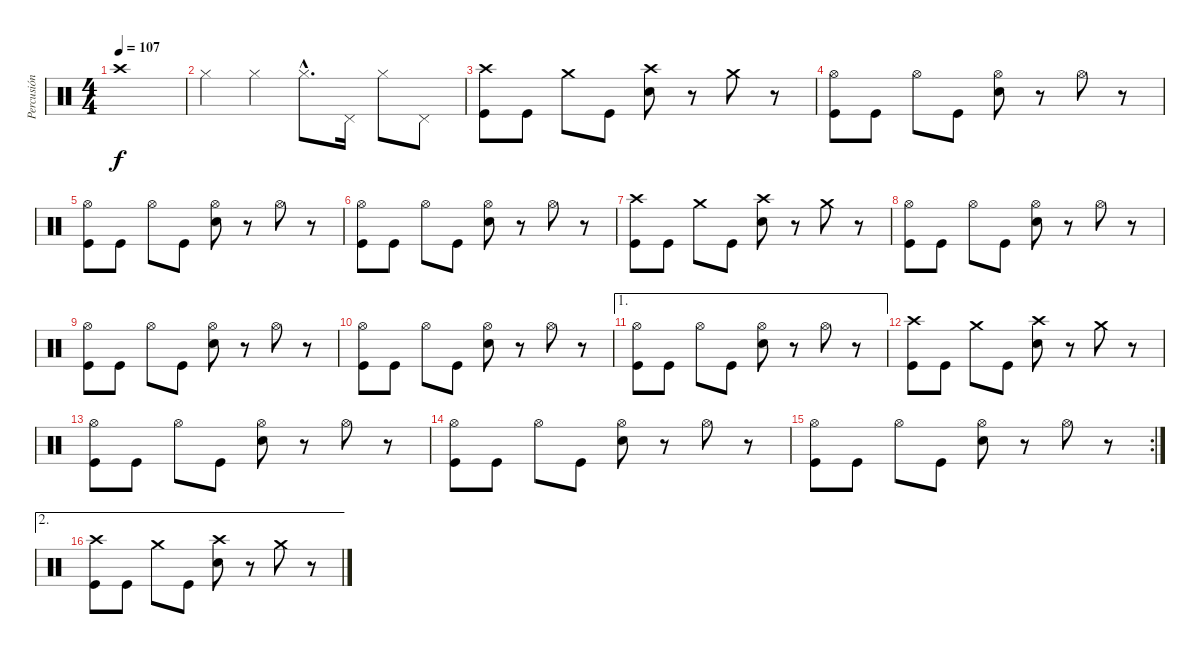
\track ("Percusión" "Percusión") {instrument percussion}
\staff {score}
\articulation defaults
\ts (4 4)
\tempo 107
\clef neutral
\ks c "Crash high (hit)".1{dy f}
|
"Hi-Hat (closed)".4 "Hi-Hat (closed)".4 "Hi-Hat (closed)"{hac}.8{d} "Pedal Hi-Hat (hit)".16 "Hi-Hat (closed)".8 "Pedal Hi-Hat (hit)".8 |
("Crash high (hit)" "Kick (hit)").8 "Kick (hit)".8 "Crash medium (hit)".8 "Kick (hit)".8 ("Crash high (hit)" "Snare (hit) 2").8 r.8 "Crash medium (hit)".8 r.8 |
("Hi-Hat (open)" "Kick (hit)").8 "Kick (hit)".8 "Hi-Hat (open)".8 "Kick (hit)".8 ("Hi-Hat (open)" "Snare (hit) 2").8 r.8 "Hi-Hat (open)".8 r.8 |
("Hi-Hat (open)" "Kick (hit)").8 "Kick (hit)".8 "Hi-Hat (open)".8 "Kick (hit)".8 ("Hi-Hat (open)" "Snare (hit) 2").8 r.8 "Hi-Hat (open)".8 r.8 |
("Hi-Hat (open)" "Kick (hit)").8 "Kick (hit)".8 "Hi-Hat (open)".8 "Kick (hit)".8 ("Hi-Hat (open)" "Snare (hit) 2").8 r.8 "Hi-Hat (open)".8 r.8 |
("Crash high (hit)" "Kick (hit)").8 "Kick (hit)".8 "Crash medium (hit)".8 "Kick (hit)".8 ("Crash high (hit)" "Snare (hit) 2").8 r.8 "Crash medium (hit)".8 r.8 |
("Hi-Hat (open)" "Kick (hit)").8 "Kick (hit)".8 "Hi-Hat (open)".8 "Kick (hit)".8 ("Hi-Hat (open)" "Snare (hit) 2").8 r.8 "Hi-Hat (open)".8 r.8 |
("Hi-Hat (open)" "Kick (hit)").8 "Kick (hit)".8 "Hi-Hat (open)".8 "Kick (hit)".8 ("Hi-Hat (open)" "Snare (hit) 2").8 r.8 "Hi-Hat (open)".8 r.8 |
("Hi-Hat (open)" "Kick (hit)").8 "Kick (hit)".8 "Hi-Hat (open)".8 "Kick (hit)".8 ("Hi-Hat (open)" "Snare (hit) 2").8 r.8 "Hi-Hat (open)".8 r.8 |
\ae 1
("Hi-Hat (open)" "Kick (hit)").8 "Kick (hit)".8 "Hi-Hat (open)".8 "Kick (hit)".8 ("Hi-Hat (open)" "Snare (hit) 2").8 r.8 "Hi-Hat (open)".8 r.8 |
("Crash high (hit)" "Kick (hit)").8 "Kick (hit)".8 "Crash medium (hit)".8 "Kick (hit)".8 ("Crash high (hit)" "Snare (hit) 2").8 r.8 "Crash medium (hit)".8 r.8 |
("Hi-Hat (open)" "Kick (hit)").8 "Kick (hit)".8 "Hi-Hat (open)".8 "Kick (hit)".8 ("Hi-Hat (open)" "Snare (hit) 2").8 r.8 "Hi-Hat (open)".8 r.8 |
("Hi-Hat (open)" "Kick (hit)").8 "Kick (hit)".8 "Hi-Hat (open)".8 "Kick (hit)".8 ("Hi-Hat (open)" "Snare (hit) 2").8 r.8 "Hi-Hat (open)".8 r.8 |
\rc 2
("Hi-Hat (open)" "Kick (hit)").8 "Kick (hit)".8 "Hi-Hat (open)".8 "Kick (hit)".8 ("Hi-Hat (open)" "Snare (hit) 2").8 r.8 "Hi-Hat (open)".8 r.8 |
\ae 2
("Crash high (hit)" "Kick (hit)").8 "Kick (hit)".8 "Crash medium (hit)".8 "Kick (hit)".8 ("Crash high (hit)" "Snare (hit) 2").8 r.8 "Crash medium (hit)".8 r.8
